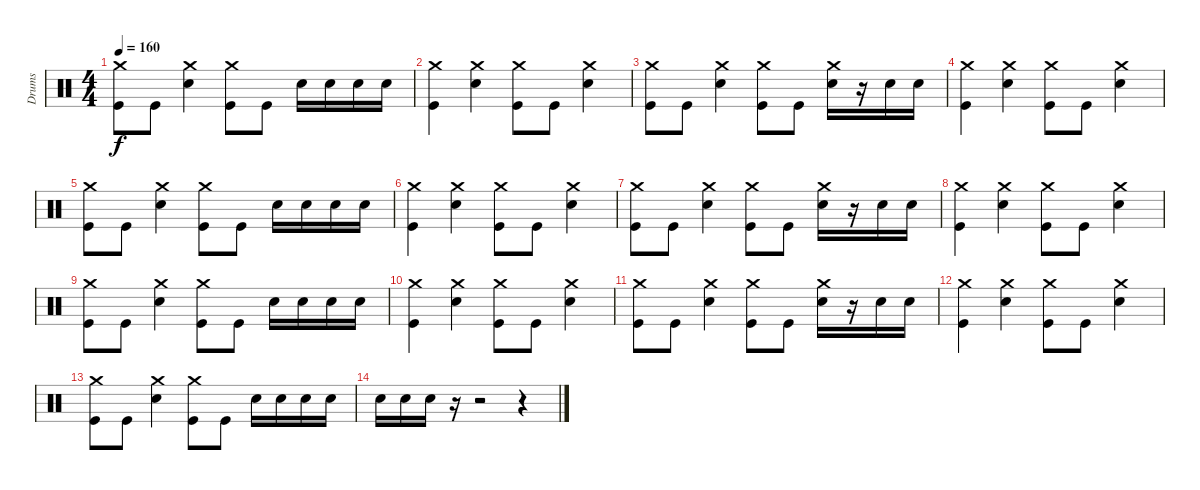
\track ("Drums" "Drums") {instrument percussion}
\staff {score}
\articulation defaults
\ts (4 4)
\tempo 160
\clef neutral
\ks c
("Crash medium (hit)" "Kick (hit)").8{dy f} "Kick (hit)".8 ("Crash medium (hit)" "Electric Snare (hit)").4 ("Crash medium (hit)" "Kick (hit)").8 "Kick (hit)".8 "Electric Snare (hit)".16 "Electric Snare (hit)".16 "Electric Snare (hit)".16 "Electric Snare (hit)".16 |
("Crash medium (hit)" "Kick (hit)").4 ("Crash medium (hit)" "Electric Snare (hit)").4 ("Crash medium (hit)" "Kick (hit)").8 "Kick (hit)".8 ("Crash medium (hit)" "Electric Snare (hit)").4 |
("Crash medium (hit)" "Kick (hit)").8 "Kick (hit)".8 ("Crash medium (hit)" "Electric Snare (hit)").4 ("Crash medium (hit)" "Kick (hit)").8 "Kick (hit)".8 ("Crash medium (hit)" "Electric Snare (hit)").16 r.16 "Electric Snare (hit)".16 "Electric Snare (hit)".16 |
("Crash medium (hit)" "Kick (hit)").4 ("Crash medium (hit)" "Electric Snare (hit)").4 ("Crash medium (hit)" "Kick (hit)").8 "Kick (hit)".8 ("Crash medium (hit)" "Electric Snare (hit)").4 |
("Crash medium (hit)" "Kick (hit)").8 "Kick (hit)".8 ("Crash medium (hit)" "Electric Snare (hit)").4 ("Crash medium (hit)" "Kick (hit)").8 "Kick (hit)".8 "Electric Snare (hit)".16 "Electric Snare (hit)".16 "Electric Snare (hit)".16 "Electric Snare (hit)".16 |
("Crash medium (hit)" "Kick (hit)").4 ("Crash medium (hit)" "Electric Snare (hit)").4 ("Crash medium (hit)" "Kick (hit)").8 "Kick (hit)".8 ("Crash medium (hit)" "Electric Snare (hit)").4 |
("Crash medium (hit)" "Kick (hit)").8 "Kick (hit)".8 ("Crash medium (hit)" "Electric Snare (hit)").4 ("Crash medium (hit)" "Kick (hit)").8 "Kick (hit)".8 ("Crash medium (hit)" "Electric Snare (hit)").16 r.16 "Electric Snare (hit)".16 "Electric Snare (hit)".16 |
("Crash medium (hit)" "Kick (hit)").4 ("Crash medium (hit)" "Electric Snare (hit)").4 ("Crash medium (hit)" "Kick (hit)").8 "Kick (hit)".8 ("Crash medium (hit)" "Electric Snare (hit)").4 |
("Crash medium (hit)" "Kick (hit)").8 "Kick (hit)".8 ("Crash medium (hit)" "Electric Snare (hit)").4 ("Crash medium (hit)" "Kick (hit)").8 "Kick (hit)".8 "Electric Snare (hit)".16 "Electric Snare (hit)".16 "Electric Snare (hit)".16 "Electric Snare (hit)".16 |
("Crash medium (hit)" "Kick (hit)").4 ("Crash medium (hit)" "Electric Snare (hit)").4 ("Crash medium (hit)" "Kick (hit)").8 "Kick (hit)".8 ("Crash medium (hit)" "Electric Snare (hit)").4 |
("Crash medium (hit)" "Kick (hit)").8 "Kick (hit)".8 ("Crash medium (hit)" "Electric Snare (hit)").4 ("Crash medium (hit)" "Kick (hit)").8 "Kick (hit)".8 ("Crash medium (hit)" "Electric Snare (hit)").16 r.16 "Electric Snare (hit)".16 "Electric Snare (hit)".16 |
("Crash medium (hit)" "Kick (hit)").4 ("Crash medium (hit)" "Electric Snare (hit)").4 ("Crash medium (hit)" "Kick (hit)").8 "Kick (hit)".8 ("Crash medium (hit)" "Electric Snare (hit)").4 |
("Crash medium (hit)" "Kick (hit)").8 "Kick (hit)".8 ("Crash medium (hit)" "Electric Snare (hit)").4 ("Crash medium (hit)" "Kick (hit)").8 "Kick (hit)".8 "Electric Snare (hit)".16 "Electric Snare (hit)".16 "Electric Snare (hit)".16 "Electric Snare (hit)".16 |
"Electric Snare (hit)".16 "Electric Snare (hit)".16 "Electric Snare (hit)".16 r.16 r.2 r.4
